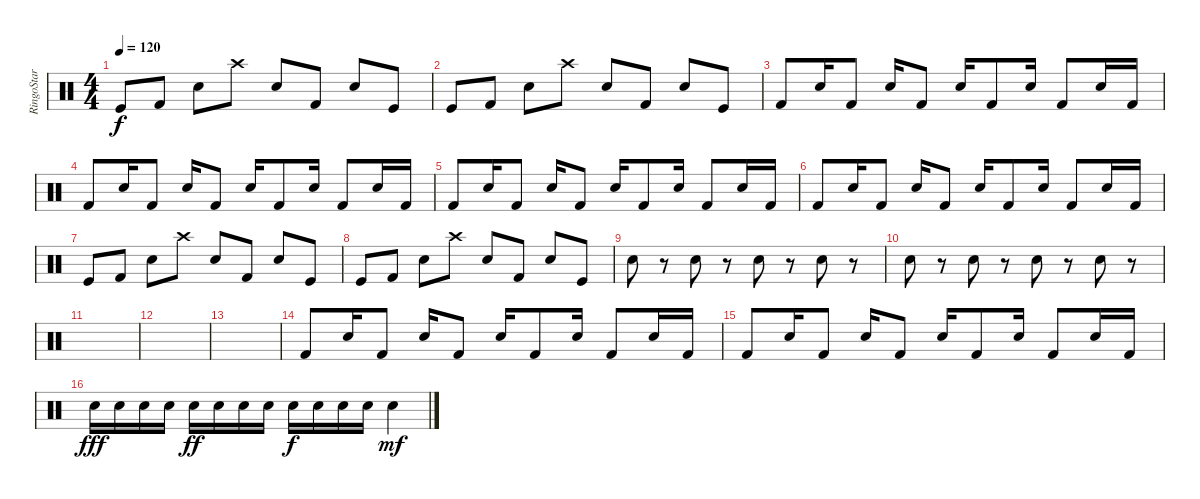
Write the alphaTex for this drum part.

\track ("RingoStar" "RingoStar") {instrument percussion}
\staff {score}
\articulation defaults
\ts (4 4)
\tempo 120
\clef neutral
\ks c "Kick (hit)".8{dy f} "Kick (hit) 2".8 "Snare (hit) 2".8 "Crash high (hit)".8 "Snare (hit) 2".8 "Kick (hit) 2".8 "Snare (hit) 2".8 "Kick (hit)".8
|
"Kick (hit)".8 "Kick (hit) 2".8 "Snare (hit) 2".8 "Crash high (hit)".8 "Snare (hit) 2".8 "Kick (hit) 2".8 "Snare (hit) 2".8 "Kick (hit)".8 |
"Kick (hit) 2".8 "Snare (hit) 2".16 "Kick (hit) 2".8 "Snare (hit) 2".16 "Kick (hit) 2".8 "Snare (hit) 2".16 "Kick (hit) 2".8 "Snare (hit) 2".16 "Kick (hit) 2".8 "Snare (hit) 2".16 "Kick (hit) 2".16 |
"Kick (hit) 2".8 "Snare (hit) 2".16 "Kick (hit) 2".8 "Snare (hit) 2".16 "Kick (hit) 2".8 "Snare (hit) 2".16 "Kick (hit) 2".8 "Snare (hit) 2".16 "Kick (hit) 2".8 "Snare (hit) 2".16 "Kick (hit) 2".16 |
"Kick (hit) 2".8 "Snare (hit) 2".16 "Kick (hit) 2".8 "Snare (hit) 2".16 "Kick (hit) 2".8 "Snare (hit) 2".16 "Kick (hit) 2".8 "Snare (hit) 2".16 "Kick (hit) 2".8 "Snare (hit) 2".16 "Kick (hit) 2".16 |
"Kick (hit) 2".8 "Snare (hit) 2".16 "Kick (hit) 2".8 "Snare (hit) 2".16 "Kick (hit) 2".8 "Snare (hit) 2".16 "Kick (hit) 2".8 "Snare (hit) 2".16 "Kick (hit) 2".8 "Snare (hit) 2".16 "Kick (hit) 2".16 |
"Kick (hit)".8 "Kick (hit) 2".8 "Snare (hit) 2".8 "Crash high (hit)".8 "Snare (hit) 2".8 "Kick (hit) 2".8 "Snare (hit) 2".8 "Kick (hit)".8 |
"Kick (hit)".8 "Kick (hit) 2".8 "Snare (hit) 2".8 "Crash high (hit)".8 "Snare (hit) 2".8 "Kick (hit) 2".8 "Snare (hit) 2".8 "Kick (hit)".8 |
"Snare (hit) 2".8 r.8 "Snare (hit) 2".8 r.8 "Snare (hit) 2".8 r.8 "Snare (hit) 2".8 r.8 |
"Snare (hit) 2".8 r.8 "Snare (hit) 2".8 r.8 "Snare (hit) 2".8 r.8 "Snare (hit) 2".8 r.8 |
|
|
|
"Kick (hit) 2".8 "Snare (hit) 2".16 "Kick (hit) 2".8 "Snare (hit) 2".16 "Kick (hit) 2".8 "Snare (hit) 2".16 "Kick (hit) 2".8 "Snare (hit) 2".16 "Kick (hit) 2".8 "Snare (hit) 2".16 "Kick (hit) 2".16 |
"Kick (hit) 2".8 "Snare (hit) 2".16 "Kick (hit) 2".8 "Snare (hit) 2".16 "Kick (hit) 2".8 "Snare (hit) 2".16 "Kick (hit) 2".8 "Snare (hit) 2".16 "Kick (hit) 2".8 "Snare (hit) 2".16 "Kick (hit) 2".16 |
"Snare (hit) 2".16{dy fff} "Snare (hit) 2".16 "Snare (hit) 2".16 "Snare (hit) 2".16 "Snare (hit) 2".16{dy ff} "Snare (hit) 2".16 "Snare (hit) 2".16 "Snare (hit) 2".16 "Snare (hit) 2".16{dy f} "Snare (hit) 2".16 "Snare (hit) 2".16 "Snare (hit) 2".16 "Snare (hit) 2".4{dy mf}
